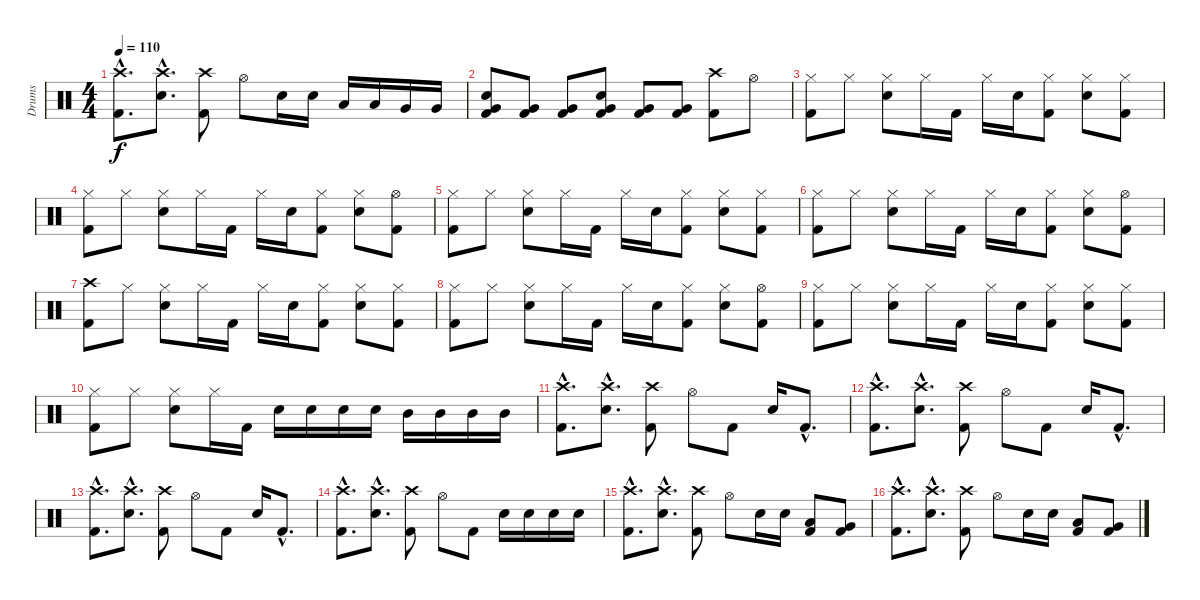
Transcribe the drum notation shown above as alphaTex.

\track ("Drums" "Drums") {instrument percussion}
\staff {score}
\articulation defaults
\ts (4 4)
\tempo 110
\clef neutral
\ks c
("Crash high (hit)"{hac} "Kick (hit) 2"{hac}).8{d dy f} ("Crash high (hit)"{hac} "Snare (hit) 2"{hac}).8{d} ("Crash high (hit)" "Kick (hit) 2").8 "Hi-Hat (open)".8 "Snare (hit) 2".16 "Snare (hit) 2".16 "Low Tom (hit)".16 "Low Tom (hit)".16 "Very Low Tom (hit)".16 "Very Low Tom (hit)".16 |
("Very Low Tom (hit)" "Snare (hit) 2" "Kick (hit) 2").8 ("Very Low Tom (hit)" "Kick (hit) 2").8 ("Very Low Tom (hit)" "Kick (hit) 2").8 ("Very Low Tom (hit)" "Snare (hit) 2" "Kick (hit) 2").8 ("Very Low Tom (hit)" "Kick (hit) 2").8 ("Very Low Tom (hit)" "Kick (hit) 2").8 ("Crash high (hit)" "Kick (hit) 2").8 "Hi-Hat (open)".8 |
("Hi-Hat (closed)" "Kick (hit) 2").8 "Hi-Hat (closed)".8 ("Hi-Hat (closed)" "Snare (hit) 2").8 "Hi-Hat (closed)".16 "Kick (hit) 2".16 "Hi-Hat (closed)".16 "Snare (hit) 2".16 ("Hi-Hat (closed)" "Kick (hit) 2").8 ("Hi-Hat (closed)" "Snare (hit) 2").8 ("Hi-Hat (closed)" "Kick (hit) 2").8 |
("Hi-Hat (closed)" "Kick (hit) 2").8 "Hi-Hat (closed)".8 ("Hi-Hat (closed)" "Snare (hit) 2").8 "Hi-Hat (closed)".16 "Kick (hit) 2".16 "Hi-Hat (closed)".16 "Snare (hit) 2".16 ("Hi-Hat (closed)" "Kick (hit) 2").8 ("Hi-Hat (closed)" "Snare (hit) 2").8 ("Hi-Hat (open)" "Kick (hit) 2").8 |
("Hi-Hat (closed)" "Kick (hit) 2").8 "Hi-Hat (closed)".8 ("Hi-Hat (closed)" "Snare (hit) 2").8 "Hi-Hat (closed)".16 "Kick (hit) 2".16 "Hi-Hat (closed)".16 "Snare (hit) 2".16 ("Hi-Hat (closed)" "Kick (hit) 2").8 ("Hi-Hat (closed)" "Snare (hit) 2").8 ("Hi-Hat (closed)" "Kick (hit) 2").8 |
("Hi-Hat (closed)" "Kick (hit) 2").8 "Hi-Hat (closed)".8 ("Hi-Hat (closed)" "Snare (hit) 2").8 "Hi-Hat (closed)".16 "Kick (hit) 2".16 "Hi-Hat (closed)".16 "Snare (hit) 2".16 ("Hi-Hat (closed)" "Kick (hit) 2").8 ("Hi-Hat (closed)" "Snare (hit) 2").8 ("Hi-Hat (open)" "Kick (hit) 2").8 |
("Crash high (hit)" "Kick (hit) 2").8 "Hi-Hat (closed)".8 ("Hi-Hat (closed)" "Snare (hit) 2").8 "Hi-Hat (closed)".16 "Kick (hit) 2".16 "Hi-Hat (closed)".16 "Snare (hit) 2".16 ("Hi-Hat (closed)" "Kick (hit) 2").8 ("Hi-Hat (closed)" "Snare (hit) 2").8 ("Hi-Hat (closed)" "Kick (hit) 2").8 |
("Hi-Hat (closed)" "Kick (hit) 2").8 "Hi-Hat (closed)".8 ("Hi-Hat (closed)" "Snare (hit) 2").8 "Hi-Hat (closed)".16 "Kick (hit) 2".16 "Hi-Hat (closed)".16 "Snare (hit) 2".16 ("Hi-Hat (closed)" "Kick (hit) 2").8 ("Hi-Hat (closed)" "Snare (hit) 2").8 ("Hi-Hat (open)" "Kick (hit) 2").8 |
("Hi-Hat (closed)" "Kick (hit) 2").8 "Hi-Hat (closed)".8 ("Hi-Hat (closed)" "Snare (hit) 2").8 "Hi-Hat (closed)".16 "Kick (hit) 2".16 "Hi-Hat (closed)".16 "Snare (hit) 2".16 ("Hi-Hat (closed)" "Kick (hit) 2").8 ("Hi-Hat (closed)" "Snare (hit) 2").8 ("Hi-Hat (closed)" "Kick (hit) 2").8 |
("Hi-Hat (closed)" "Kick (hit) 2").8 "Hi-Hat (closed)".8 ("Hi-Hat (closed)" "Snare (hit) 2").8 "Hi-Hat (closed)".16 "Kick (hit) 2".16 "Snare (hit) 2".16 "Snare (hit) 2".16 "Snare (hit) 2".16 "Snare (hit) 2".16 "Mid Tom (hit)".16 "Mid Tom (hit)".16 "Mid Tom (hit)".16 "Mid Tom (hit)".16 |
("Crash high (hit)"{hac} "Kick (hit) 2"{hac}).8{d} ("Crash high (hit)"{hac} "Snare (hit) 2"{hac}).8{d} ("Crash high (hit)" "Kick (hit) 2").8 "Hi-Hat (open)".8 "Kick (hit) 2".8 "Snare (hit) 2".16 "Kick (hit) 2"{hac}.8{d} |
("Crash high (hit)"{hac} "Kick (hit) 2"{hac}).8{d} ("Crash high (hit)"{hac} "Snare (hit) 2"{hac}).8{d} ("Crash high (hit)" "Kick (hit) 2").8 "Hi-Hat (open)".8 "Kick (hit) 2".8 "Snare (hit) 2".16 "Kick (hit) 2"{hac}.8{d} |
("Crash high (hit)"{hac} "Kick (hit) 2"{hac}).8{d} ("Crash high (hit)"{hac} "Snare (hit) 2"{hac}).8{d} ("Crash high (hit)" "Kick (hit) 2").8 "Hi-Hat (open)".8 "Kick (hit) 2".8 "Snare (hit) 2".16 "Kick (hit) 2"{hac}.8{d} |
("Crash high (hit)"{hac} "Kick (hit) 2"{hac}).8{d} ("Crash high (hit)"{hac} "Snare (hit) 2"{hac}).8{d} ("Crash high (hit)" "Kick (hit) 2").8 "Hi-Hat (open)".8 "Kick (hit) 2".8 "Snare (hit) 2".16 "Snare (hit) 2".16 "Snare (hit) 2".16 "Snare (hit) 2".16 |
("Crash high (hit)"{hac} "Kick (hit) 2"{hac}).8{d} ("Crash high (hit)"{hac} "Snare (hit) 2"{hac}).8{d} ("Crash high (hit)" "Kick (hit) 2").8 "Hi-Hat (open)".8 "Snare (hit) 2".16 "Snare (hit) 2".16 ("Low Tom (hit)" "Kick (hit) 2").8 ("Very Low Tom (hit)" "Kick (hit) 2").8 |
("Crash high (hit)"{hac} "Kick (hit) 2"{hac}).8{d} ("Crash high (hit)"{hac} "Snare (hit) 2"{hac}).8{d} ("Crash high (hit)" "Kick (hit) 2").8 "Hi-Hat (open)".8 "Snare (hit) 2".16 "Snare (hit) 2".16 ("Low Tom (hit)" "Kick (hit) 2").8 ("Very Low Tom (hit)" "Kick (hit) 2").8
